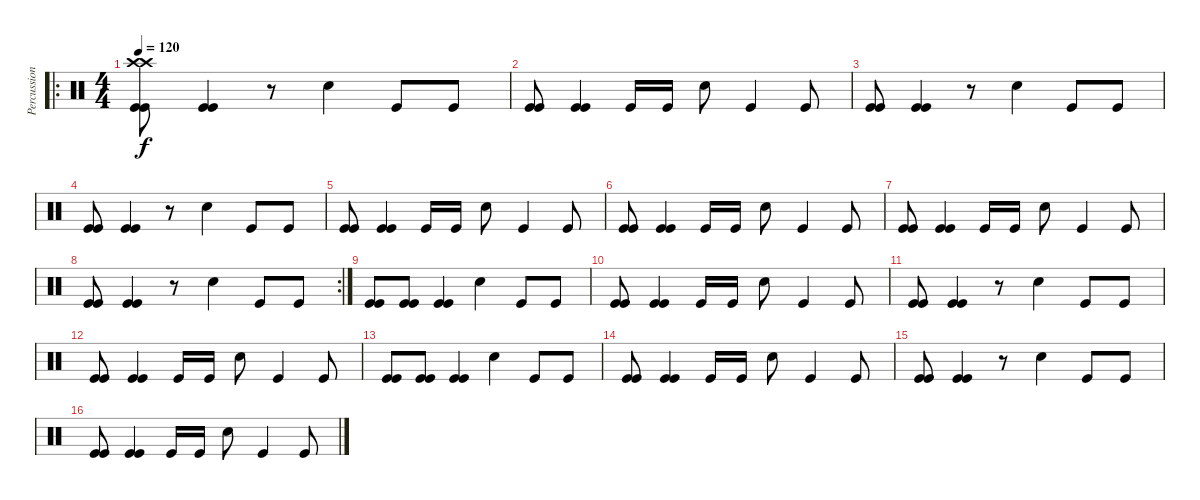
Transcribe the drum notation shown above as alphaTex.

\track ("Percussion" "Percussion") {instrument percussion}
\staff {score}
\articulation defaults
\ro
\ts (4 4)
\tempo 120
\clef neutral
\ks c
("Kick (hit)" "Kick (hit)" "Crash high (hit)" "Crash high (hit)").8{dy f} ("Kick (hit)" "Kick (hit)").4 r.8 "Electric Snare (hit)".4 "Kick (hit)".8 "Kick (hit)".8 |
("Kick (hit)" "Kick (hit)").8 ("Kick (hit)" "Kick (hit)").4 "Kick (hit)".16 "Kick (hit)".16 "Electric Snare (hit)".8 "Kick (hit)".4 "Kick (hit)".8 |
("Kick (hit)" "Kick (hit)").8 ("Kick (hit)" "Kick (hit)").4 r.8 "Electric Snare (hit)".4 "Kick (hit)".8 "Kick (hit)".8 |
("Kick (hit)" "Kick (hit)").8 ("Kick (hit)" "Kick (hit)").4 r.8 "Electric Snare (hit)".4 "Kick (hit)".8 "Kick (hit)".8 |
("Kick (hit)" "Kick (hit)").8 ("Kick (hit)" "Kick (hit)").4 "Kick (hit)".16 "Kick (hit)".16 "Electric Snare (hit)".8 "Kick (hit)".4 "Kick (hit)".8 |
("Kick (hit)" "Kick (hit)").8 ("Kick (hit)" "Kick (hit)").4 "Kick (hit)".16 "Kick (hit)".16 "Electric Snare (hit)".8 "Kick (hit)".4 "Kick (hit)".8 |
("Kick (hit)" "Kick (hit)").8 ("Kick (hit)" "Kick (hit)").4 "Kick (hit)".16 "Kick (hit)".16 "Electric Snare (hit)".8 "Kick (hit)".4 "Kick (hit)".8 |
\rc 2
("Kick (hit)" "Kick (hit)").8 ("Kick (hit)" "Kick (hit)").4 r.8 "Electric Snare (hit)".4 "Kick (hit)".8 "Kick (hit)".8 |
("Kick (hit)" "Kick (hit)").8 ("Kick (hit)" "Kick (hit)").8 ("Kick (hit)" "Kick (hit)").4 "Electric Snare (hit)".4 "Kick (hit)".8 "Kick (hit)".8 |
("Kick (hit)" "Kick (hit)").8 ("Kick (hit)" "Kick (hit)").4 "Kick (hit)".16 "Kick (hit)".16 "Electric Snare (hit)".8 "Kick (hit)".4 "Kick (hit)".8 |
("Kick (hit)" "Kick (hit)").8 ("Kick (hit)" "Kick (hit)").4 r.8 "Electric Snare (hit)".4 "Kick (hit)".8 "Kick (hit)".8 |
("Kick (hit)" "Kick (hit)").8 ("Kick (hit)" "Kick (hit)").4 "Kick (hit)".16 "Kick (hit)".16 "Electric Snare (hit)".8 "Kick (hit)".4 "Kick (hit)".8 |
("Kick (hit)" "Kick (hit)").8 ("Kick (hit)" "Kick (hit)").8 ("Kick (hit)" "Kick (hit)").4 "Electric Snare (hit)".4 "Kick (hit)".8 "Kick (hit)".8 |
("Kick (hit)" "Kick (hit)").8 ("Kick (hit)" "Kick (hit)").4 "Kick (hit)".16 "Kick (hit)".16 "Electric Snare (hit)".8 "Kick (hit)".4 "Kick (hit)".8 |
("Kick (hit)" "Kick (hit)").8 ("Kick (hit)" "Kick (hit)").4 r.8 "Electric Snare (hit)".4 "Kick (hit)".8 "Kick (hit)".8 |
("Kick (hit)" "Kick (hit)").8 ("Kick (hit)" "Kick (hit)").4 "Kick (hit)".16 "Kick (hit)".16 "Electric Snare (hit)".8 "Kick (hit)".4 "Kick (hit)".8
